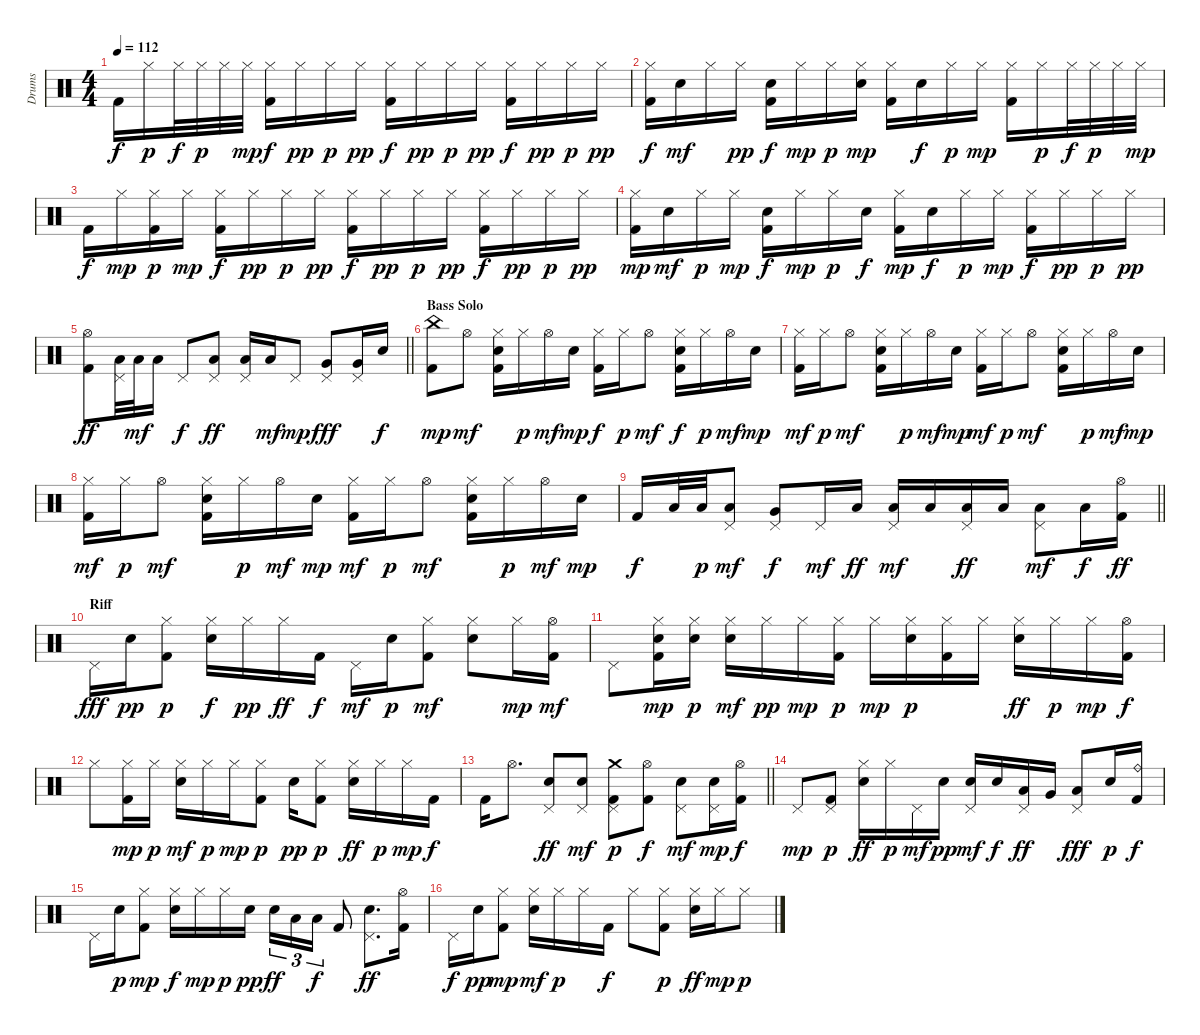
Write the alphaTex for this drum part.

\track ("Drums" "Drums") {instrument percussion}
\staff {score}
\articulation defaults
\ts (4 4)
\tempo 112
\clef neutral
\ks c "Kick (hit) 2".16{dy f} "Hi-Hat (closed)".16{dy p} "Hi-Hat (closed)".32{dy f} "Hi-Hat (closed)".32{dy p} "Hi-Hat (closed)".32 "Hi-Hat (closed)".32{dy mp}
("Kick (hit) 2" "Hi-Hat (closed)").16{dy f} "Hi-Hat (closed)".16{dy pp} "Hi-Hat (closed)".16{dy p} "Hi-Hat (closed)".16{dy pp} ("Kick (hit) 2" "Hi-Hat (closed)").16{dy f} "Hi-Hat (closed)".16{dy pp} "Hi-Hat (closed)".16{dy p} "Hi-Hat (closed)".16{dy pp} ("Kick (hit) 2" "Hi-Hat (closed)").16{dy f} "Hi-Hat (closed)".16{dy pp} "Hi-Hat (closed)".16{dy p} "Hi-Hat (closed)".16{dy pp} |
("Kick (hit) 2" "Hi-Hat (closed)").16{dy f} "Snare (hit) 2".16{dy mf} "Hi-Hat (closed)".16 "Hi-Hat (closed)".16{dy pp} ("Kick (hit) 2" "Snare (hit) 2").16{dy f} "Hi-Hat (closed)".16{dy mp} "Hi-Hat (closed)".16{dy p} ("Snare (hit) 2" "Hi-Hat (closed)").16{dy mp} ("Kick (hit) 2" "Hi-Hat (closed)").16 "Snare (hit) 2".16{dy f} "Hi-Hat (closed)".16{dy p} "Hi-Hat (closed)".16{dy mp} ("Kick (hit) 2" "Hi-Hat (closed)").16 "Hi-Hat (closed)".16{dy p} "Hi-Hat (closed)".32{dy f} "Hi-Hat (closed)".32{dy p} "Hi-Hat (closed)".32 "Hi-Hat (closed)".32{dy mp} |
"Kick (hit) 2".16{dy f} "Hi-Hat (closed)".16{dy mp} ("Kick (hit) 2" "Hi-Hat (closed)").16{dy p} "Hi-Hat (closed)".16{dy mp} ("Kick (hit) 2" "Hi-Hat (closed)").16{dy f} "Hi-Hat (closed)".16{dy pp} "Hi-Hat (closed)".16{dy p} "Hi-Hat (closed)".16{dy pp} ("Kick (hit) 2" "Hi-Hat (closed)").16{dy f} "Hi-Hat (closed)".16{dy pp} "Hi-Hat (closed)".16{dy p} "Hi-Hat (closed)".16{dy pp} ("Kick (hit) 2" "Hi-Hat (closed)").16{dy f} "Hi-Hat (closed)".16{dy pp} "Hi-Hat (closed)".16{dy p} "Hi-Hat (closed)".16{dy pp} |
("Kick (hit) 2" "Hi-Hat (closed)").16{dy mp} "Snare (hit) 2".16{dy mf} "Hi-Hat (closed)".16{dy p} "Hi-Hat (closed)".16{dy mp} ("Kick (hit) 2" "Snare (hit) 2").16{dy f} "Hi-Hat (closed)".16{dy mp} "Hi-Hat (closed)".16{dy p} "Snare (hit) 2".16{dy f} ("Kick (hit) 2" "Hi-Hat (closed)").16{dy mp} "Snare (hit) 2".16{dy f} "Hi-Hat (closed)".16{dy p} "Hi-Hat (closed)".16{dy mp} ("Kick (hit) 2" "Hi-Hat (closed)").16{dy f} "Hi-Hat (closed)".16{dy pp} "Hi-Hat (closed)".16{dy p} "Hi-Hat (closed)".16{dy pp} |
\barLineRight lightlight
("Kick (hit) 2" "Hi-Hat (open)").8{dy ff} ("Pedal Hi-Hat (hit)" "Low Tom (hit)").32 "Low Tom (hit)".32{dy mf} "Low Tom (hit)".16 "Pedal Hi-Hat (hit)".8{dy f} ("Pedal Hi-Hat (hit)" "Low Tom (hit)").8{dy ff} ("Pedal Hi-Hat (hit)" "Low Tom (hit)").16 "Low Tom (hit)".16{dy mf} "Pedal Hi-Hat (hit)".8{dy mp} ("Pedal Hi-Hat (hit)" "Very Low Tom (hit)").8{dy fff} ("Pedal Hi-Hat (hit)" "Very Low Tom (hit)").16 "Snare (hit) 2".16{dy f} |
\section ("" "Bass Solo")
("Kick (hit) 2" "China (hit)").8{dy mp} "Hi-Hat (open)".8{dy mf} ("Kick (hit) 2" "Snare (hit) 2" "Hi-Hat (closed)").16 "Hi-Hat (closed)".16{dy p} "Hi-Hat (open)".16{dy mf} "Snare (hit) 2".16{dy mp} ("Kick (hit) 2" "Hi-Hat (closed)").16{dy f} "Hi-Hat (closed)".16{dy p} "Hi-Hat (open)".8{dy mf} ("Kick (hit) 2" "Snare (hit) 2" "Hi-Hat (closed)").16{dy f} "Hi-Hat (closed)".16{dy p} "Hi-Hat (open)".16{dy mf} "Snare (hit) 2".16{dy mp} |
("Kick (hit) 2" "Hi-Hat (closed)").16{dy mf} "Hi-Hat (closed)".16{dy p} "Hi-Hat (open)".8{dy mf} ("Kick (hit) 2" "Snare (hit) 2" "Hi-Hat (closed)").16 "Hi-Hat (closed)".16{dy p} "Hi-Hat (open)".16{dy mf} "Snare (hit) 2".16{dy mp} ("Kick (hit) 2" "Hi-Hat (closed)").16{dy mf} "Hi-Hat (closed)".16{dy p} "Hi-Hat (open)".8{dy mf} ("Kick (hit) 2" "Snare (hit) 2" "Hi-Hat (closed)").16 "Hi-Hat (closed)".16{dy p} "Hi-Hat (open)".16{dy mf} "Snare (hit) 2".16{dy mp} |
("Kick (hit) 2" "Hi-Hat (closed)").16{dy mf} "Hi-Hat (closed)".16{dy p} "Hi-Hat (open)".8{dy mf} ("Kick (hit) 2" "Snare (hit) 2" "Hi-Hat (closed)").16 "Hi-Hat (closed)".16{dy p} "Hi-Hat (open)".16{dy mf} "Snare (hit) 2".16{dy mp} ("Kick (hit) 2" "Hi-Hat (closed)").16{dy mf} "Hi-Hat (closed)".16{dy p} "Hi-Hat (open)".8{dy mf} ("Kick (hit) 2" "Snare (hit) 2" "Hi-Hat (closed)").16 "Hi-Hat (closed)".16{dy p} "Hi-Hat (open)".16{dy mf} "Snare (hit) 2".16{dy mp} |
\barLineRight lightlight "Kick (hit) 2".16{dy f} "Low Tom (hit)".32 "Low Tom (hit)".32{dy p}
("Pedal Hi-Hat (hit)" "Low Tom (hit)").8{dy mf} ("Pedal Hi-Hat (hit)" "Very Low Tom (hit)").8{dy f} "Pedal Hi-Hat (hit)".16{dy mf} "Low Floor Tom (hit)".16{dy ff} ("Pedal Hi-Hat (hit)" "Low Floor Tom (hit)").16{dy mf} "Low Floor Tom (hit)".16 ("Pedal Hi-Hat (hit)" "Low Floor Tom (hit)").16{dy ff} "Low Tom (hit)".16 ("Pedal Hi-Hat (hit)" "Low Tom (hit)").8{dy mf} "Low Tom (hit)".16{dy f} ("Kick (hit) 2" "Hi-Hat (open)").16{dy ff} |
\section ("" "Riff")
"Pedal Hi-Hat (hit)".16{dy fff} "Snare (hit) 2".16{dy pp} ("Kick (hit) 2" "Hi-Hat (closed)").8{dy p} ("Snare (hit) 2" "Hi-Hat (closed)").16{dy f} "Hi-Hat (closed)".16{dy pp} "Hi-Hat (closed)".16{dy ff} "Kick (hit) 2".16{dy f} "Pedal Hi-Hat (hit)".16{dy mf} "Snare (hit) 2".16{dy p} ("Kick (hit) 2" "Hi-Hat (closed)").8{dy mf} ("Snare (hit) 2" "Hi-Hat (closed)").8 "Hi-Hat (closed)".16{dy mp} ("Kick (hit) 2" "Hi-Hat (open)").16{dy mf} |
"Pedal Hi-Hat (hit)".8 ("Kick (hit) 2" "Snare (hit) 2" "Hi-Hat (closed)").16{dy mp} ("Snare (hit) 2" "Hi-Hat (closed)").16{dy p} ("Snare (hit) 2" "Hi-Hat (closed)").16{dy mf} "Hi-Hat (closed)".16{dy pp} "Hi-Hat (closed)".16{dy mp} ("Kick (hit) 2" "Hi-Hat (closed)").16{dy p} "Hi-Hat (closed)".16{dy mp} ("Snare (hit) 2" "Hi-Hat (closed)").16{dy p} ("Kick (hit) 2" "Hi-Hat (closed)").16 "Hi-Hat (closed)".16 ("Snare (hit) 2" "Hi-Hat (closed)").16{dy ff} "Hi-Hat (closed)".16{dy p} "Hi-Hat (closed)".16{dy mp} ("Kick (hit) 2" "Hi-Hat (open)").16{dy f} |
"Hi-Hat (closed)".8 ("Kick (hit) 2" "Hi-Hat (closed)").16{dy mp} "Hi-Hat (closed)".16{dy p} ("Snare (hit) 2" "Hi-Hat (closed)").16{dy mf} "Hi-Hat (closed)".16{dy p} "Hi-Hat (closed)".16{dy mp} ("Kick (hit) 2" "Hi-Hat (closed)").8{dy p} "Snare (hit) 2".16{dy pp} ("Kick (hit) 2" "Hi-Hat (closed)").8{dy p} ("Snare (hit) 2" "Hi-Hat (closed)").16{dy ff} "Hi-Hat (closed)".16{dy p} "Hi-Hat (closed)".16{dy mp} "Kick (hit) 2".16{dy f} |
\barLineRight lightlight "Kick (hit) 2".16 "Hi-Hat (open)".8{d}
("Snare (hit) 2" "Pedal Hi-Hat (hit)").8{dy ff} ("Snare (hit) 2" "Pedal Hi-Hat (hit)").8{dy mf} ("Kick (hit) 2" "Pedal Hi-Hat (hit)" "Crash medium (hit)").8{dy p} ("Kick (hit) 2" "Hi-Hat (open)").8{dy f} ("Snare (hit) 2" "Pedal Hi-Hat (hit)").8{dy mf} ("Snare (hit) 2" "Pedal Hi-Hat (hit)").16{dy mp} ("Kick (hit) 2" "Hi-Hat (open)").16{dy f} |
"Pedal Hi-Hat (hit)".8{dy mp} ("Kick (hit) 2" "Pedal Hi-Hat (hit)").8{dy p} ("Snare (hit) 2" "Hi-Hat (closed)").16{dy ff} "Hi-Hat (closed)".16{dy p} "Pedal Hi-Hat (hit)".16{dy mf} "Snare (hit) 2".16{dy pp} ("Snare (hit) 2" "Pedal Hi-Hat (hit)").16{dy mf} "Snare (hit) 2".16{dy f} ("Pedal Hi-Hat (hit)" "Low Tom (hit)").16{dy ff} "Very Low Tom (hit)".16 ("Pedal Hi-Hat (hit)" "Low Floor Tom (hit)").8{dy fff} "Snare (hit) 2".16{dy p} ("Kick (hit) 2" "Ride (bell)").16{dy f} |
"Pedal Hi-Hat (hit)".16 "Snare (hit) 2".16{dy p} ("Kick (hit) 2" "Hi-Hat (closed)").8{dy mp} ("Snare (hit) 2" "Hi-Hat (closed)").16{dy f} "Hi-Hat (closed)".16{dy mp} "Hi-Hat (closed)".16{dy p} "Snare (hit) 2".16{dy pp} "Snare (hit) 2".16{tu (3 2) dy ff} "Low Tom (hit)".16{tu (3 2)} "Low Floor Tom (hit)".16{tu (3 2) dy f} "Kick (hit) 2".8 ("Snare (hit) 2" "Pedal Hi-Hat (hit)").8{d dy ff} ("Kick (hit) 2" "Hi-Hat (open)").16 |
"Pedal Hi-Hat (hit)".16{dy f} "Snare (hit) 2".16{dy pp} ("Kick (hit) 2" "Hi-Hat (closed)").8{dy mp} ("Snare (hit) 2" "Hi-Hat (closed)").16{dy mf} "Hi-Hat (closed)".16{dy p} "Hi-Hat (closed)".16 "Kick (hit) 2".16{dy f} "Hi-Hat (closed)".8 ("Kick (hit) 2" "Hi-Hat (closed)").8{dy p} ("Snare (hit) 2" "Hi-Hat (closed)").16{dy ff} "Hi-Hat (closed)".16{dy mp} "Hi-Hat (closed)".8{dy p}
